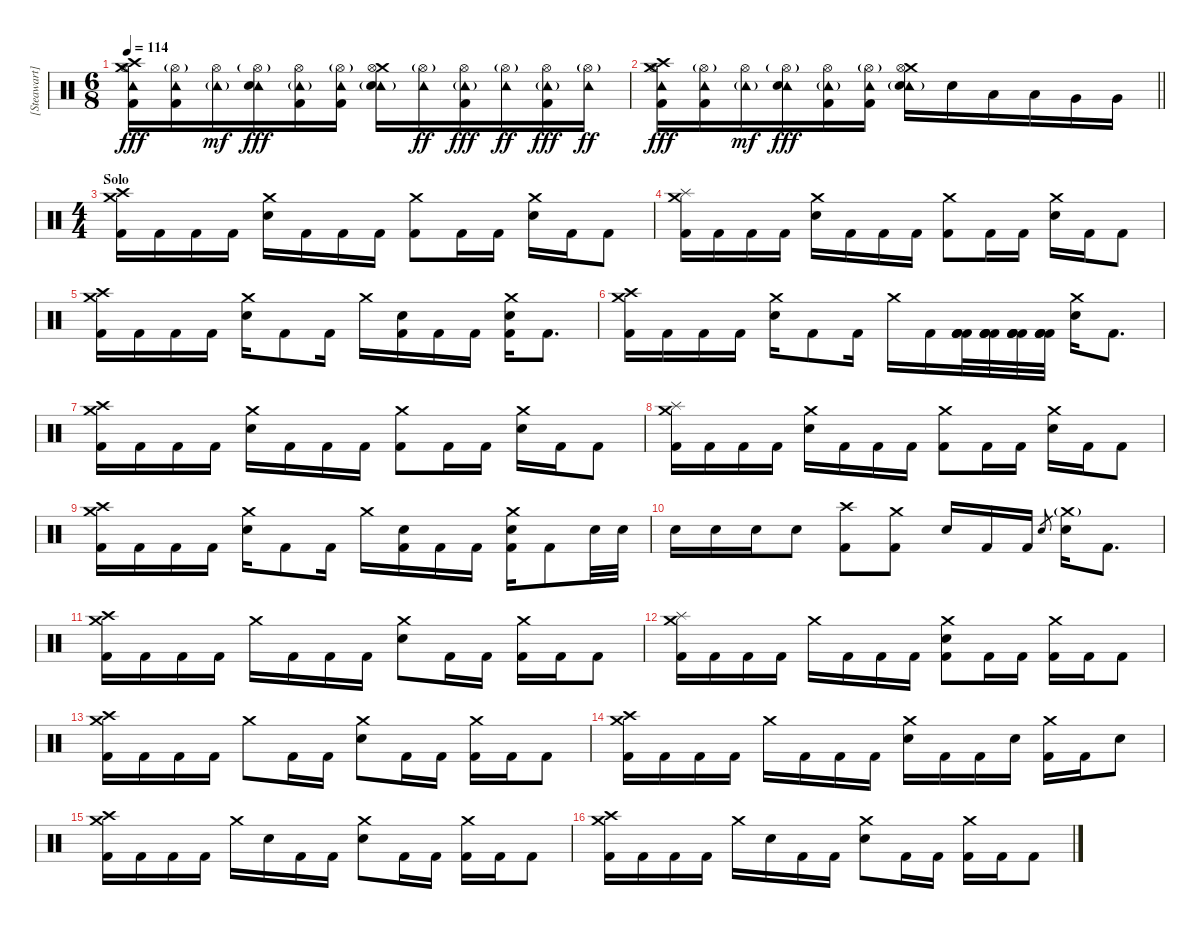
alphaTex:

\track ("[Steawart] Drums" "[Steawart]") {solo instrument percussion}
\staff {score}
\articulation defaults
\ts (6 8)
\tempo 114
\clef neutral
\ks c
("Crash medium (hit)" "Hi-Hat (open)" "Crash high (hit)" "Tambourine (hit)" "Kick (hit) 2").16{dy fff} ("Hi-Hat (open)"{g} "Tambourine (hit)" "Kick (hit) 2").16 ("Hi-Hat (open)" "Tambourine (hit)"{g}).16{dy mf} ("Hi-Hat (open)"{g} "Tambourine (hit)" "Electric Snare (hit)").16{dy fff} ("Hi-Hat (open)" "Tambourine (hit)"{g} "Kick (hit) 2").16 ("Hi-Hat (open)"{g} "Tambourine (hit)" "Kick (hit) 2").16 ("Crash medium (hit)" "Hi-Hat (open)" "Tambourine (hit)"{g} "Electric Snare (hit)").16 ("Hi-Hat (open)"{g} "Tambourine (hit)").16{dy ff} ("Hi-Hat (open)" "Tambourine (hit)"{g} "Kick (hit) 2").16{dy fff} ("Hi-Hat (open)"{g} "Tambourine (hit)").16{dy ff} ("Hi-Hat (open)" "Tambourine (hit)"{g} "Kick (hit) 2").16{dy fff} ("Hi-Hat (open)"{g} "Tambourine (hit)").16{dy ff} |
\barLineRight lightlight
("Crash medium (hit)" "Hi-Hat (open)" "Crash high (hit)" "Tambourine (hit)" "Kick (hit) 2").16{dy fff} ("Hi-Hat (open)"{g} "Tambourine (hit)" "Kick (hit) 2").16 ("Hi-Hat (open)" "Tambourine (hit)"{g}).16{dy mf} ("Hi-Hat (open)"{g} "Tambourine (hit)" "Electric Snare (hit)").16{dy fff} ("Hi-Hat (open)" "Tambourine (hit)"{g} "Kick (hit) 2").16 ("Hi-Hat (open)"{g} "Tambourine (hit)" "Kick (hit) 2").16 ("Crash medium (hit)" "Hi-Hat (open)" "Tambourine (hit)"{g} "Electric Snare (hit)").16 "Electric Snare (hit)".16 "Low Tom (hit)".16 "Low Tom (hit)".16 "Very Low Tom (hit)".16 "Very Low Tom (hit)".16 |
\ts (4 4)
\section ("" "Solo")
("Crash medium (hit)" "Crash high (hit)" "Kick (hit) 2").16 "Kick (hit) 2".16 "Kick (hit) 2".16 "Kick (hit) 2".16 ("Crash medium (hit)" "Electric Snare (hit)").16 "Kick (hit) 2".16 "Kick (hit) 2".16 "Kick (hit) 2".16 ("Crash medium (hit)" "Kick (hit) 2").8 "Kick (hit) 2".16 "Kick (hit) 2".16 ("Crash medium (hit)" "Electric Snare (hit)").16 "Kick (hit) 2".16 "Kick (hit) 2".8 |
("Crash medium (hit)" "Splash (hit)" "Kick (hit) 2").16 "Kick (hit) 2".16 "Kick (hit) 2".16 "Kick (hit) 2".16 ("Crash medium (hit)" "Electric Snare (hit)").16 "Kick (hit) 2".16 "Kick (hit) 2".16 "Kick (hit) 2".16 ("Crash medium (hit)" "Kick (hit) 2").8 "Kick (hit) 2".16 "Kick (hit) 2".16 ("Crash medium (hit)" "Electric Snare (hit)").16 "Kick (hit) 2".16 "Kick (hit) 2".8 |
("Crash medium (hit)" "Crash high (hit)" "Kick (hit) 2").16 "Kick (hit) 2".16 "Kick (hit) 2".16 "Kick (hit) 2".16 ("Crash medium (hit)" "Electric Snare (hit)").16 "Kick (hit) 2".8 "Kick (hit) 2".16 "Crash medium (hit)".16 ("Electric Snare (hit)" "Kick (hit) 2").16 "Kick (hit) 2".16 "Kick (hit) 2".16 ("Crash medium (hit)" "Electric Snare (hit)" "Kick (hit) 2").16 "Kick (hit) 2".8{d} |
("Crash medium (hit)" "Crash high (hit)" "Kick (hit) 2").16 "Kick (hit) 2".16 "Kick (hit) 2".16 "Kick (hit) 2".16 ("Crash medium (hit)" "Electric Snare (hit)").16 "Kick (hit) 2".8 "Kick (hit) 2".16 "Crash medium (hit)".16 "Kick (hit) 2".16 ("Kick (hit) 2" "Kick (hit) 2" "Kick (hit) 2" "Kick (hit) 2").32 ("Kick (hit) 2" "Kick (hit) 2" "Kick (hit) 2" "Kick (hit) 2").32 ("Kick (hit) 2" "Kick (hit) 2" "Kick (hit) 2" "Kick (hit) 2").32 ("Kick (hit) 2" "Kick (hit) 2" "Kick (hit) 2" "Kick (hit) 2").32 ("Crash medium (hit)" "Electric Snare (hit)").16 "Kick (hit) 2".8{d} |
("Crash medium (hit)" "Crash high (hit)" "Kick (hit) 2").16 "Kick (hit) 2".16 "Kick (hit) 2".16 "Kick (hit) 2".16 ("Crash medium (hit)" "Electric Snare (hit)").16 "Kick (hit) 2".16 "Kick (hit) 2".16 "Kick (hit) 2".16 ("Crash medium (hit)" "Kick (hit) 2").8 "Kick (hit) 2".16 "Kick (hit) 2".16 ("Crash medium (hit)" "Electric Snare (hit)").16 "Kick (hit) 2".16 "Kick (hit) 2".8 |
("Crash medium (hit)" "Splash (hit)" "Kick (hit) 2").16 "Kick (hit) 2".16 "Kick (hit) 2".16 "Kick (hit) 2".16 ("Crash medium (hit)" "Electric Snare (hit)").16 "Kick (hit) 2".16 "Kick (hit) 2".16 "Kick (hit) 2".16 ("Crash medium (hit)" "Kick (hit) 2").8 "Kick (hit) 2".16 "Kick (hit) 2".16 ("Crash medium (hit)" "Electric Snare (hit)").16 "Kick (hit) 2".16 "Kick (hit) 2".8 |
("Crash medium (hit)" "Crash high (hit)" "Kick (hit) 2").16 "Kick (hit) 2".16 "Kick (hit) 2".16 "Kick (hit) 2".16 ("Crash medium (hit)" "Electric Snare (hit)").16 "Kick (hit) 2".8 "Kick (hit) 2".16 "Crash medium (hit)".16 ("Electric Snare (hit)" "Kick (hit) 2").16 "Kick (hit) 2".16 "Kick (hit) 2".16 ("Crash medium (hit)" "Electric Snare (hit)" "Kick (hit) 2").16 "Kick (hit) 2".8 "Electric Snare (hit)".32 "Electric Snare (hit)".32 |
"Electric Snare (hit)".16 "Electric Snare (hit)".16 "Electric Snare (hit)".16 "Electric Snare (hit)".8 ("Crash high (hit)" "Kick (hit) 2").8 ("Crash medium (hit)" "Kick (hit) 2").8 "Electric Snare (hit)".16 "Kick (hit) 2".16 "Kick (hit) 2".16 "Electric Snare (hit)".8{gr} ("Crash medium (hit)"{g} "Electric Snare (hit)").16 "Kick (hit) 2".8{d} |
("Crash medium (hit)" "Crash high (hit)" "Kick (hit) 2").16 "Kick (hit) 2".16 "Kick (hit) 2".16 "Kick (hit) 2".16 "Crash medium (hit)".16 "Kick (hit) 2".16 "Kick (hit) 2".16 "Kick (hit) 2".16 ("Crash medium (hit)" "Electric Snare (hit)").8 "Kick (hit) 2".16 "Kick (hit) 2".16 ("Crash medium (hit)" "Kick (hit) 2").16 "Kick (hit) 2".16 "Kick (hit) 2".8 |
("Crash medium (hit)" "Splash (hit)" "Kick (hit) 2").16 "Kick (hit) 2".16 "Kick (hit) 2".16 "Kick (hit) 2".16 "Crash medium (hit)".16 "Kick (hit) 2".16 "Kick (hit) 2".16 "Kick (hit) 2".16 ("Crash medium (hit)" "Electric Snare (hit)" "Kick (hit) 2").8 "Kick (hit) 2".16 "Kick (hit) 2".16 ("Crash medium (hit)" "Kick (hit) 2").16 "Kick (hit) 2".16 "Kick (hit) 2".8 |
("Crash medium (hit)" "Crash high (hit)" "Kick (hit) 2").16 "Kick (hit) 2".16 "Kick (hit) 2".16 "Kick (hit) 2".16 "Crash medium (hit)".8 "Kick (hit) 2".16 "Kick (hit) 2".16 ("Crash medium (hit)" "Electric Snare (hit)").8 "Kick (hit) 2".16 "Kick (hit) 2".16 ("Crash medium (hit)" "Kick (hit) 2").16 "Kick (hit) 2".16 "Kick (hit) 2".8 |
("Crash medium (hit)" "Crash high (hit)" "Kick (hit) 2").16 "Kick (hit) 2".16 "Kick (hit) 2".16 "Kick (hit) 2".16 "Crash medium (hit)".16 "Kick (hit) 2".16 "Kick (hit) 2".16 "Kick (hit) 2".16 ("Crash medium (hit)" "Electric Snare (hit)").16 "Kick (hit) 2".16 "Kick (hit) 2".16 "Electric Snare (hit)".16 ("Crash medium (hit)" "Kick (hit) 2").16 "Kick (hit) 2".16 "Electric Snare (hit)".8 |
("Crash medium (hit)" "Crash high (hit)" "Kick (hit) 2").16 "Kick (hit) 2".16 "Kick (hit) 2".16 "Kick (hit) 2".16 "Crash medium (hit)".16 "Electric Snare (hit)".16 "Kick (hit) 2".16 "Kick (hit) 2".16 ("Crash medium (hit)" "Electric Snare (hit)").8 "Kick (hit) 2".16 "Kick (hit) 2".16 ("Crash medium (hit)" "Kick (hit) 2").16 "Kick (hit) 2".16 "Kick (hit) 2".8 |
("Crash medium (hit)" "Crash high (hit)" "Kick (hit) 2").16 "Kick (hit) 2".16 "Kick (hit) 2".16 "Kick (hit) 2".16 "Crash medium (hit)".16 "Electric Snare (hit)".16 "Kick (hit) 2".16 "Kick (hit) 2".16 ("Crash medium (hit)" "Electric Snare (hit)").8 "Kick (hit) 2".16 "Kick (hit) 2".16 ("Crash medium (hit)" "Kick (hit) 2").16 "Kick (hit) 2".16 "Kick (hit) 2".8
